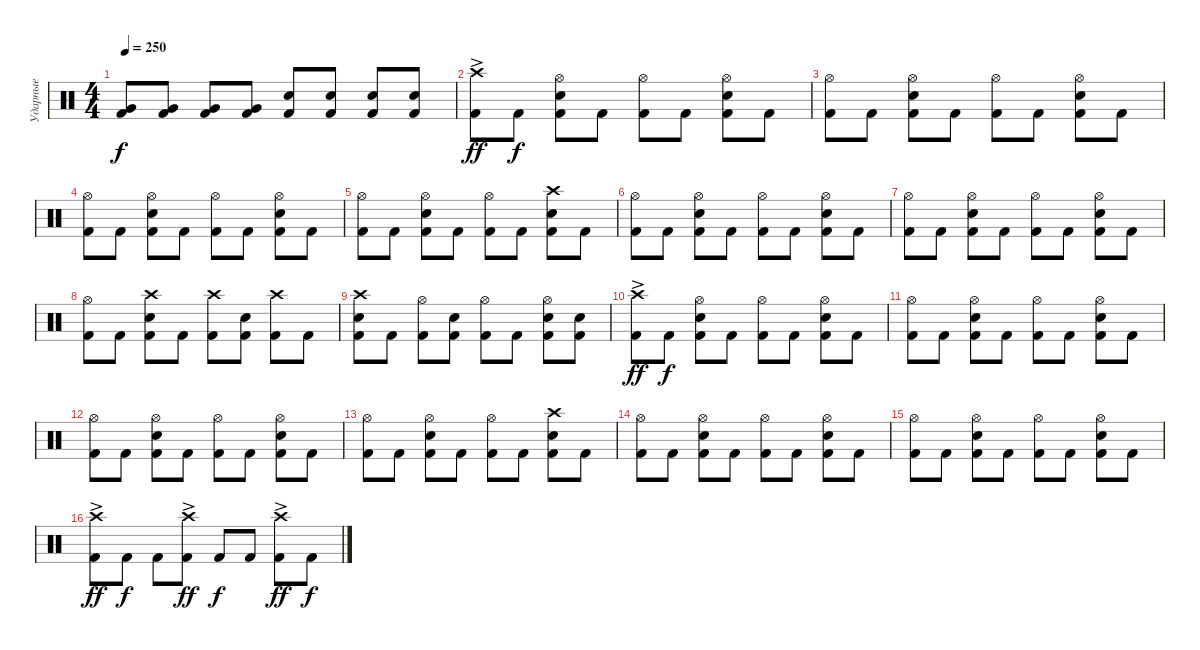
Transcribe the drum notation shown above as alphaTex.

\track ("Ударные" "Ударные") {instrument percussion}
\staff {score}
\articulation defaults
\ts (4 4)
\tempo 250
\clef neutral
\ks c
("Kick (hit) 2" "Very Low Tom (hit)").8{dy f} ("Kick (hit) 2" "Very Low Tom (hit)").8 ("Kick (hit) 2" "Very Low Tom (hit)").8 ("Kick (hit) 2" "Very Low Tom (hit)").8 ("Kick (hit) 2" "Snare (hit) 2").8 ("Kick (hit) 2" "Snare (hit) 2").8 ("Kick (hit) 2" "Snare (hit) 2").8 ("Kick (hit) 2" "Snare (hit) 2").8 |
("Kick (hit) 2" "Crash high (hit)"{ac}).8{dy ff} "Kick (hit) 2".8{dy f} ("Kick (hit) 2" "Snare (hit) 2" "Hi-Hat (open)").8 "Kick (hit) 2".8 ("Kick (hit) 2" "Hi-Hat (open)").8 "Kick (hit) 2".8 ("Kick (hit) 2" "Snare (hit) 2" "Hi-Hat (open)").8 "Kick (hit) 2".8 |
("Kick (hit) 2" "Hi-Hat (open)").8 "Kick (hit) 2".8 ("Kick (hit) 2" "Snare (hit) 2" "Hi-Hat (open)").8 "Kick (hit) 2".8 ("Kick (hit) 2" "Hi-Hat (open)").8 "Kick (hit) 2".8 ("Kick (hit) 2" "Snare (hit) 2" "Hi-Hat (open)").8 "Kick (hit) 2".8 |
("Kick (hit) 2" "Hi-Hat (open)").8 "Kick (hit) 2".8 ("Kick (hit) 2" "Snare (hit) 2" "Hi-Hat (open)").8 "Kick (hit) 2".8 ("Kick (hit) 2" "Hi-Hat (open)").8 "Kick (hit) 2".8 ("Kick (hit) 2" "Snare (hit) 2" "Hi-Hat (open)").8 "Kick (hit) 2".8 |
("Kick (hit) 2" "Hi-Hat (open)").8 "Kick (hit) 2".8 ("Kick (hit) 2" "Snare (hit) 2" "Hi-Hat (open)").8 "Kick (hit) 2".8 ("Kick (hit) 2" "Hi-Hat (open)").8 "Kick (hit) 2".8 ("Kick (hit) 2" "Snare (hit) 2" "Crash high (hit)").8 "Kick (hit) 2".8 |
("Kick (hit) 2" "Hi-Hat (open)").8 "Kick (hit) 2".8 ("Kick (hit) 2" "Snare (hit) 2" "Hi-Hat (open)").8 "Kick (hit) 2".8 ("Kick (hit) 2" "Hi-Hat (open)").8 "Kick (hit) 2".8 ("Kick (hit) 2" "Snare (hit) 2" "Hi-Hat (open)").8 "Kick (hit) 2".8 |
("Kick (hit) 2" "Hi-Hat (open)").8 "Kick (hit) 2".8 ("Kick (hit) 2" "Snare (hit) 2" "Hi-Hat (open)").8 "Kick (hit) 2".8 ("Kick (hit) 2" "Hi-Hat (open)").8 "Kick (hit) 2".8 ("Kick (hit) 2" "Snare (hit) 2" "Hi-Hat (open)").8 "Kick (hit) 2".8 |
("Kick (hit) 2" "Hi-Hat (open)").8 "Kick (hit) 2".8 ("Kick (hit) 2" "Snare (hit) 2" "Crash high (hit)").8 "Kick (hit) 2".8 ("Kick (hit) 2" "Crash high (hit)").8 ("Kick (hit) 2" "Snare (hit) 2").8 ("Kick (hit) 2" "Crash high (hit)").8 "Kick (hit) 2".8 |
("Kick (hit) 2" "Snare (hit) 2" "Crash high (hit)").8 "Kick (hit) 2".8 ("Kick (hit) 2" "Hi-Hat (open)").8 ("Kick (hit) 2" "Snare (hit) 2").8 ("Kick (hit) 2" "Hi-Hat (open)").8 "Kick (hit) 2".8 ("Kick (hit) 2" "Snare (hit) 2" "Hi-Hat (open)").8 ("Kick (hit) 2" "Snare (hit) 2").8 |
("Kick (hit) 2" "Crash high (hit)"{ac}).8{dy ff} "Kick (hit) 2".8{dy f} ("Kick (hit) 2" "Snare (hit) 2" "Hi-Hat (open)").8 "Kick (hit) 2".8 ("Kick (hit) 2" "Hi-Hat (open)").8 "Kick (hit) 2".8 ("Kick (hit) 2" "Snare (hit) 2" "Hi-Hat (open)").8 "Kick (hit) 2".8 |
("Kick (hit) 2" "Hi-Hat (open)").8 "Kick (hit) 2".8 ("Kick (hit) 2" "Snare (hit) 2" "Hi-Hat (open)").8 "Kick (hit) 2".8 ("Kick (hit) 2" "Hi-Hat (open)").8 "Kick (hit) 2".8 ("Kick (hit) 2" "Snare (hit) 2" "Hi-Hat (open)").8 "Kick (hit) 2".8 |
("Kick (hit) 2" "Hi-Hat (open)").8 "Kick (hit) 2".8 ("Kick (hit) 2" "Snare (hit) 2" "Hi-Hat (open)").8 "Kick (hit) 2".8 ("Kick (hit) 2" "Hi-Hat (open)").8 "Kick (hit) 2".8 ("Kick (hit) 2" "Snare (hit) 2" "Hi-Hat (open)").8 "Kick (hit) 2".8 |
("Kick (hit) 2" "Hi-Hat (open)").8 "Kick (hit) 2".8 ("Kick (hit) 2" "Snare (hit) 2" "Hi-Hat (open)").8 "Kick (hit) 2".8 ("Kick (hit) 2" "Hi-Hat (open)").8 "Kick (hit) 2".8 ("Kick (hit) 2" "Snare (hit) 2" "Crash high (hit)").8 "Kick (hit) 2".8 |
("Kick (hit) 2" "Hi-Hat (open)").8 "Kick (hit) 2".8 ("Kick (hit) 2" "Snare (hit) 2" "Hi-Hat (open)").8 "Kick (hit) 2".8 ("Kick (hit) 2" "Hi-Hat (open)").8 "Kick (hit) 2".8 ("Kick (hit) 2" "Snare (hit) 2" "Hi-Hat (open)").8 "Kick (hit) 2".8 |
("Kick (hit) 2" "Hi-Hat (open)").8 "Kick (hit) 2".8 ("Kick (hit) 2" "Snare (hit) 2" "Hi-Hat (open)").8 "Kick (hit) 2".8 ("Kick (hit) 2" "Hi-Hat (open)").8 "Kick (hit) 2".8 ("Kick (hit) 2" "Snare (hit) 2" "Hi-Hat (open)").8 "Kick (hit) 2".8 |
("Kick (hit) 2" "Crash high (hit)"{ac}).8{dy ff} "Kick (hit) 2".8{dy f} "Kick (hit) 2".8 ("Kick (hit) 2" "Crash high (hit)"{ac}).8{dy ff} "Kick (hit) 2".8{dy f} "Kick (hit) 2".8 ("Kick (hit) 2" "Crash high (hit)"{ac}).8{dy ff} "Kick (hit) 2".8{dy f}
